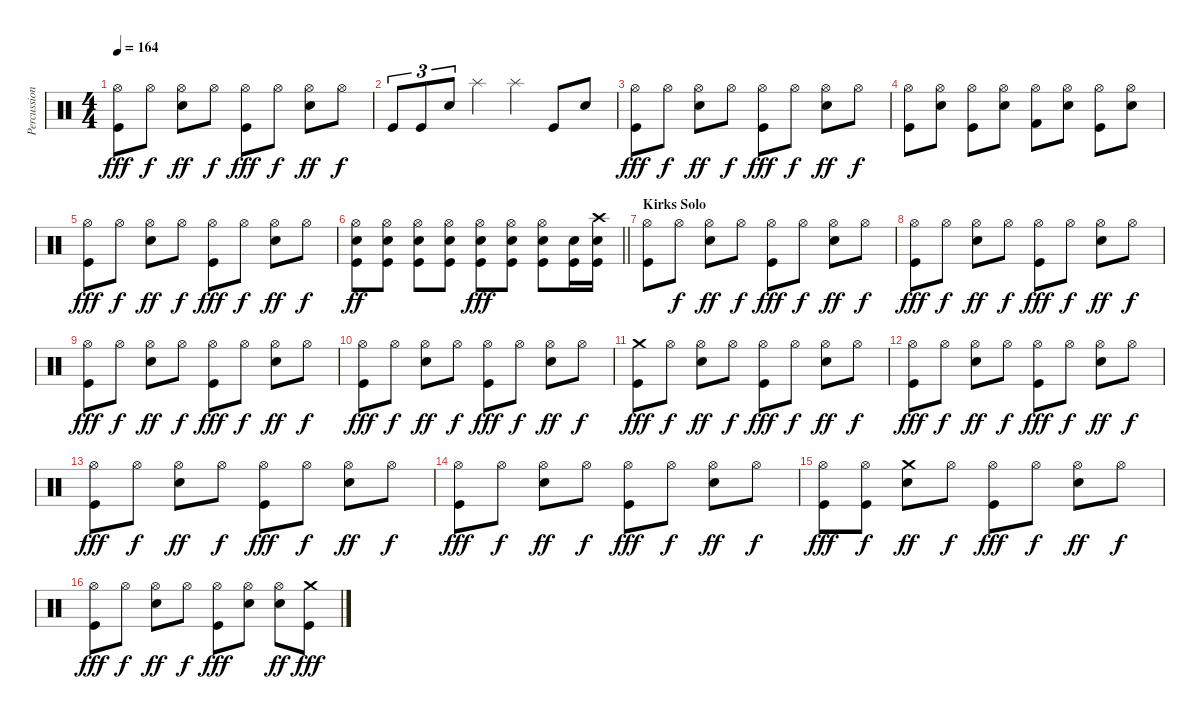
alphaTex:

\track ("Percussion" "Percussion") {instrument percussion}
\staff {score}
\articulation defaults
\ts (4 4)
\tempo 164
\clef neutral
\ks c
("Hi-Hat (open)" "Kick (hit)").8{dy fff} "Hi-Hat (open)".8{dy f} ("Hi-Hat (open)" "Snare (hit) 2").8{dy ff} "Hi-Hat (open)".8{dy f} ("Hi-Hat (open)" "Kick (hit)").8{dy fff} "Hi-Hat (open)".8{dy f} ("Hi-Hat (open)" "Snare (hit) 2").8{dy ff} "Hi-Hat (open)".8{dy f} |
"Kick (hit)".8{tu (3 2)} "Kick (hit)".8{tu (3 2)} "Snare (hit) 2".8{tu (3 2)} "Splash (hit)".4 "Splash (hit)".4 "Kick (hit)".8 "Snare (hit) 2".8 |
("Hi-Hat (open)" "Kick (hit)").8{dy fff} "Hi-Hat (open)".8{dy f} ("Hi-Hat (open)" "Snare (hit) 2").8{dy ff} "Hi-Hat (open)".8{dy f} ("Hi-Hat (open)" "Kick (hit)").8{dy fff} "Hi-Hat (open)".8{dy f} ("Hi-Hat (open)" "Snare (hit) 2").8{dy ff} "Hi-Hat (open)".8{dy f} |
("Hi-Hat (open)" "Kick (hit)").8 ("Hi-Hat (open)" "Snare (hit) 2").8 ("Hi-Hat (open)" "Kick (hit)").8 ("Hi-Hat (open)" "Snare (hit) 2").8 ("Hi-Hat (open)" "Kick (hit) 2").8 ("Hi-Hat (open)" "Snare (hit) 2").8 ("Hi-Hat (open)" "Kick (hit)").8 ("Hi-Hat (open)" "Snare (hit) 2").8 |
("Hi-Hat (open)" "Kick (hit)").8{dy fff} "Hi-Hat (open)".8{dy f} ("Hi-Hat (open)" "Snare (hit) 2").8{dy ff} "Hi-Hat (open)".8{dy f} ("Hi-Hat (open)" "Kick (hit)").8{dy fff} "Hi-Hat (open)".8{dy f} ("Hi-Hat (open)" "Snare (hit) 2").8{dy ff} "Hi-Hat (open)".8{dy f} |
\barLineRight lightlight
("Hi-Hat (open)" "Snare (hit) 2" "Kick (hit)").8{dy ff} ("Hi-Hat (open)" "Snare (hit) 2" "Kick (hit)").8 ("Hi-Hat (open)" "Snare (hit) 2" "Kick (hit)").8 ("Hi-Hat (open)" "Snare (hit) 2" "Kick (hit)").8 ("Hi-Hat (open)" "Snare (hit) 2" "Kick (hit)").8{dy fff} ("Hi-Hat (open)" "Snare (hit) 2" "Kick (hit)").8 ("Hi-Hat (open)" "Snare (hit) 2" "Kick (hit)").8 ("Snare (hit) 2" "Kick (hit)").16 ("Crash high (hit)" "Snare (hit) 2" "Kick (hit)").16 |
\section ("" "Kirks Solo")
("Hi-Hat (open)" "Kick (hit)").8 "Hi-Hat (open)".8{dy f} ("Hi-Hat (open)" "Snare (hit) 2").8{dy ff} "Hi-Hat (open)".8{dy f} ("Hi-Hat (open)" "Kick (hit)").8{dy fff} "Hi-Hat (open)".8{dy f} ("Hi-Hat (open)" "Snare (hit) 2").8{dy ff} "Hi-Hat (open)".8{dy f} |
("Hi-Hat (open)" "Kick (hit)").8{dy fff} "Hi-Hat (open)".8{dy f} ("Hi-Hat (open)" "Snare (hit) 2").8{dy ff} "Hi-Hat (open)".8{dy f} ("Hi-Hat (open)" "Kick (hit)").8{dy fff} "Hi-Hat (open)".8{dy f} ("Hi-Hat (open)" "Snare (hit) 2").8{dy ff} "Hi-Hat (open)".8{dy f} |
("Hi-Hat (open)" "Kick (hit)").8{dy fff} "Hi-Hat (open)".8{dy f} ("Hi-Hat (open)" "Snare (hit) 2").8{dy ff} "Hi-Hat (open)".8{dy f} ("Hi-Hat (open)" "Kick (hit)").8{dy fff} "Hi-Hat (open)".8{dy f} ("Hi-Hat (open)" "Snare (hit) 2").8{dy ff} "Hi-Hat (open)".8{dy f} |
("Hi-Hat (open)" "Kick (hit)").8{dy fff} "Hi-Hat (open)".8{dy f} ("Hi-Hat (open)" "Snare (hit) 2").8{dy ff} "Hi-Hat (open)".8{dy f} ("Hi-Hat (open)" "Kick (hit)").8{dy fff} "Hi-Hat (open)".8{dy f} ("Hi-Hat (open)" "Snare (hit) 2").8{dy ff} "Hi-Hat (open)".8{dy f} |
("Crash medium (hit)" "Kick (hit)").8{dy fff} "Hi-Hat (open)".8{dy f} ("Hi-Hat (open)" "Snare (hit) 2").8{dy ff} "Hi-Hat (open)".8{dy f} ("Hi-Hat (open)" "Kick (hit)").8{dy fff} "Hi-Hat (open)".8{dy f} ("Hi-Hat (open)" "Snare (hit) 2").8{dy ff} "Hi-Hat (open)".8{dy f} |
("Hi-Hat (open)" "Kick (hit)").8{dy fff} "Hi-Hat (open)".8{dy f} ("Hi-Hat (open)" "Snare (hit) 2").8{dy ff} "Hi-Hat (open)".8{dy f} ("Hi-Hat (open)" "Kick (hit)").8{dy fff} "Hi-Hat (open)".8{dy f} ("Hi-Hat (open)" "Snare (hit) 2").8{dy ff} "Hi-Hat (open)".8{dy f} |
("Hi-Hat (open)" "Kick (hit)").8{dy fff} "Hi-Hat (open)".8{dy f} ("Hi-Hat (open)" "Snare (hit) 2").8{dy ff} "Hi-Hat (open)".8{dy f} ("Hi-Hat (open)" "Kick (hit)").8{dy fff} "Hi-Hat (open)".8{dy f} ("Hi-Hat (open)" "Snare (hit) 2").8{dy ff} "Hi-Hat (open)".8{dy f} |
("Hi-Hat (open)" "Kick (hit)").8{dy fff} "Hi-Hat (open)".8{dy f} ("Hi-Hat (open)" "Snare (hit) 2").8{dy ff} "Hi-Hat (open)".8{dy f} ("Hi-Hat (open)" "Kick (hit)").8{dy fff} "Hi-Hat (open)".8{dy f} ("Hi-Hat (open)" "Snare (hit) 2").8{dy ff} "Hi-Hat (open)".8{dy f} |
("Hi-Hat (open)" "Kick (hit)").8{dy fff} ("Hi-Hat (open)" "Kick (hit)").8{dy f} ("Crash medium (hit)" "Snare (hit) 2").8{dy ff} "Hi-Hat (open)".8{dy f} ("Hi-Hat (open)" "Kick (hit)").8{dy fff} "Hi-Hat (open)".8{dy f} ("Hi-Hat (open)" "Snare (hit) 2").8{dy ff} "Hi-Hat (open)".8{dy f} |
("Hi-Hat (open)" "Kick (hit)").8{dy fff} "Hi-Hat (open)".8{dy f} ("Hi-Hat (open)" "Snare (hit) 2").8{dy ff} "Hi-Hat (open)".8{dy f} ("Hi-Hat (open)" "Kick (hit)").8{dy fff} ("Hi-Hat (open)" "Snare (hit) 2").8 ("Hi-Hat (open)" "Snare (hit) 2").8{dy ff} ("Crash medium (hit)" "Kick (hit)").8{dy fff}
